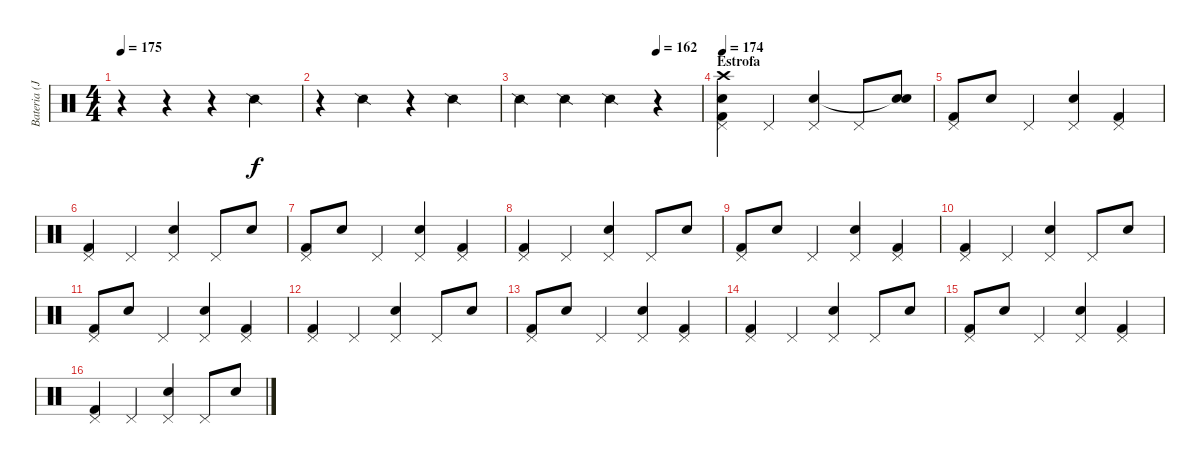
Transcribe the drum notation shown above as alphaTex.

\track ("Bateria (Jefrey Fischman)" "Bateria (J") {instrument percussion}
\staff {score}
\articulation defaults
\ts (4 4)
\tempo 175
\clef neutral
\ks c
r.4{dy f} r.4 r.4 "Snare (side stick) 2".4 |
r.4 "Snare (side stick) 2".4 r.4 "Snare (side stick) 2".4 |
\tempo (162 0.75)
"Snare (side stick) 2".4 "Snare (side stick) 2".4 "Snare (side stick) 2".4 r.4 |
\section ("" "Estrofa")
\tempo 174
("Pedal Hi-Hat (hit)" "Snare (hit) 2" "Kick (hit) 2" "Crash high (hit)").4 "Pedal Hi-Hat (hit)".4 ("Pedal Hi-Hat (hit)" "Snare (hit) 2").4 "Pedal Hi-Hat (hit)".8 ("Snare (hit) 2" "Snare (hit)"{t}).8 |
("Pedal Hi-Hat (hit)" "Kick (hit) 2").8 "Snare (hit) 2".8 "Pedal Hi-Hat (hit)".4 ("Pedal Hi-Hat (hit)" "Snare (hit) 2").4 ("Pedal Hi-Hat (hit)" "Kick (hit) 2").4 |
("Pedal Hi-Hat (hit)" "Kick (hit) 2").4 "Pedal Hi-Hat (hit)".4 ("Pedal Hi-Hat (hit)" "Snare (hit) 2").4 "Pedal Hi-Hat (hit)".8 "Snare (hit) 2".8 |
("Pedal Hi-Hat (hit)" "Kick (hit) 2").8 "Snare (hit) 2".8 "Pedal Hi-Hat (hit)".4 ("Pedal Hi-Hat (hit)" "Snare (hit) 2").4 ("Pedal Hi-Hat (hit)" "Kick (hit) 2").4 |
("Pedal Hi-Hat (hit)" "Kick (hit) 2").4 "Pedal Hi-Hat (hit)".4 ("Pedal Hi-Hat (hit)" "Snare (hit) 2").4 "Pedal Hi-Hat (hit)".8 "Snare (hit) 2".8 |
("Pedal Hi-Hat (hit)" "Kick (hit) 2").8 "Snare (hit) 2".8 "Pedal Hi-Hat (hit)".4 ("Pedal Hi-Hat (hit)" "Snare (hit) 2").4 ("Pedal Hi-Hat (hit)" "Kick (hit) 2").4 |
("Pedal Hi-Hat (hit)" "Kick (hit) 2").4 "Pedal Hi-Hat (hit)".4 ("Pedal Hi-Hat (hit)" "Snare (hit) 2").4 "Pedal Hi-Hat (hit)".8 "Snare (hit) 2".8 |
("Pedal Hi-Hat (hit)" "Kick (hit) 2").8 "Snare (hit) 2".8 "Pedal Hi-Hat (hit)".4 ("Pedal Hi-Hat (hit)" "Snare (hit) 2").4 ("Pedal Hi-Hat (hit)" "Kick (hit) 2").4 |
("Pedal Hi-Hat (hit)" "Kick (hit) 2").4 "Pedal Hi-Hat (hit)".4 ("Pedal Hi-Hat (hit)" "Snare (hit) 2").4 "Pedal Hi-Hat (hit)".8 "Snare (hit) 2".8 |
("Pedal Hi-Hat (hit)" "Kick (hit) 2").8 "Snare (hit) 2".8 "Pedal Hi-Hat (hit)".4 ("Pedal Hi-Hat (hit)" "Snare (hit) 2").4 ("Pedal Hi-Hat (hit)" "Kick (hit) 2").4 |
("Pedal Hi-Hat (hit)" "Kick (hit) 2").4 "Pedal Hi-Hat (hit)".4 ("Pedal Hi-Hat (hit)" "Snare (hit) 2").4 "Pedal Hi-Hat (hit)".8 "Snare (hit) 2".8 |
("Pedal Hi-Hat (hit)" "Kick (hit) 2").8 "Snare (hit) 2".8 "Pedal Hi-Hat (hit)".4 ("Pedal Hi-Hat (hit)" "Snare (hit) 2").4 ("Pedal Hi-Hat (hit)" "Kick (hit) 2").4 |
("Pedal Hi-Hat (hit)" "Kick (hit) 2").4 "Pedal Hi-Hat (hit)".4 ("Pedal Hi-Hat (hit)" "Snare (hit) 2").4 "Pedal Hi-Hat (hit)".8 "Snare (hit) 2".8
